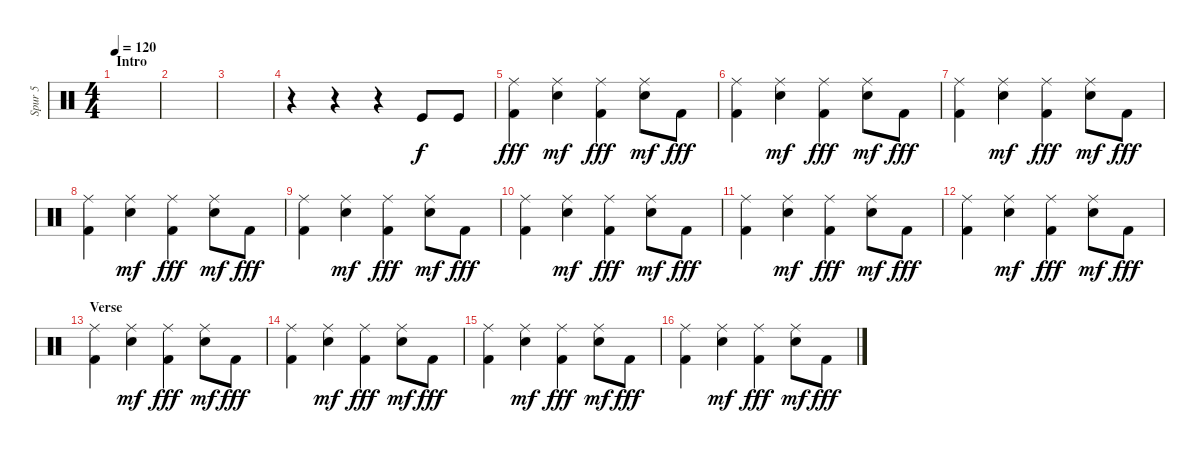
\track ("Spur 5" "Spur 5") {instrument percussion}
\staff {score}
\articulation defaults
\ts (4 4)
\section ("" "Intro")
\tempo 120
\clef neutral
\ks c
|
|
|
r.4 r.4 r.4 "Kick (hit)".8 "Kick (hit)".8 |
("Ride (middle)" "Kick (hit) 2").4{dy fff} ("Ride (middle)" "Snare (hit) 2").4{dy mf} ("Ride (middle)" "Kick (hit) 2").4{dy fff} ("Ride (middle)" "Snare (hit) 2").8{dy mf} "Kick (hit) 2".8{dy fff} |
("Ride (middle)" "Kick (hit) 2").4 ("Ride (middle)" "Snare (hit) 2").4{dy mf} ("Ride (middle)" "Kick (hit) 2").4{dy fff} ("Ride (middle)" "Snare (hit) 2").8{dy mf} "Kick (hit) 2".8{dy fff} |
("Ride (middle)" "Kick (hit) 2").4 ("Ride (middle)" "Snare (hit) 2").4{dy mf} ("Ride (middle)" "Kick (hit) 2").4{dy fff} ("Ride (middle)" "Snare (hit) 2").8{dy mf} "Kick (hit) 2".8{dy fff} |
("Ride (middle)" "Kick (hit) 2").4 ("Ride (middle)" "Snare (hit) 2").4{dy mf} ("Ride (middle)" "Kick (hit) 2").4{dy fff} ("Ride (middle)" "Snare (hit) 2").8{dy mf} "Kick (hit) 2".8{dy fff} |
("Ride (middle)" "Kick (hit) 2").4 ("Ride (middle)" "Snare (hit) 2").4{dy mf} ("Ride (middle)" "Kick (hit) 2").4{dy fff} ("Ride (middle)" "Snare (hit) 2").8{dy mf} "Kick (hit) 2".8{dy fff} |
("Ride (middle)" "Kick (hit) 2").4 ("Ride (middle)" "Snare (hit) 2").4{dy mf} ("Ride (middle)" "Kick (hit) 2").4{dy fff} ("Ride (middle)" "Snare (hit) 2").8{dy mf} "Kick (hit) 2".8{dy fff} |
("Ride (middle)" "Kick (hit) 2").4 ("Ride (middle)" "Snare (hit) 2").4{dy mf} ("Ride (middle)" "Kick (hit) 2").4{dy fff} ("Ride (middle)" "Snare (hit) 2").8{dy mf} "Kick (hit) 2".8{dy fff} |
("Ride (middle)" "Kick (hit) 2").4 ("Ride (middle)" "Snare (hit) 2").4{dy mf} ("Ride (middle)" "Kick (hit) 2").4{dy fff} ("Ride (middle)" "Snare (hit) 2").8{dy mf} "Kick (hit) 2".8{dy fff} |
\section ("" "Verse")
("Ride (middle)" "Kick (hit) 2").4 ("Ride (middle)" "Snare (hit) 2").4{dy mf} ("Ride (middle)" "Kick (hit) 2").4{dy fff} ("Ride (middle)" "Snare (hit) 2").8{dy mf} "Kick (hit) 2".8{dy fff} |
("Ride (middle)" "Kick (hit) 2").4 ("Ride (middle)" "Snare (hit) 2").4{dy mf} ("Ride (middle)" "Kick (hit) 2").4{dy fff} ("Ride (middle)" "Snare (hit) 2").8{dy mf} "Kick (hit) 2".8{dy fff} |
("Ride (middle)" "Kick (hit) 2").4 ("Ride (middle)" "Snare (hit) 2").4{dy mf} ("Ride (middle)" "Kick (hit) 2").4{dy fff} ("Ride (middle)" "Snare (hit) 2").8{dy mf} "Kick (hit) 2".8{dy fff} |
("Ride (middle)" "Kick (hit) 2").4 ("Ride (middle)" "Snare (hit) 2").4{dy mf} ("Ride (middle)" "Kick (hit) 2").4{dy fff} ("Ride (middle)" "Snare (hit) 2").8{dy mf} "Kick (hit) 2".8{dy fff}
